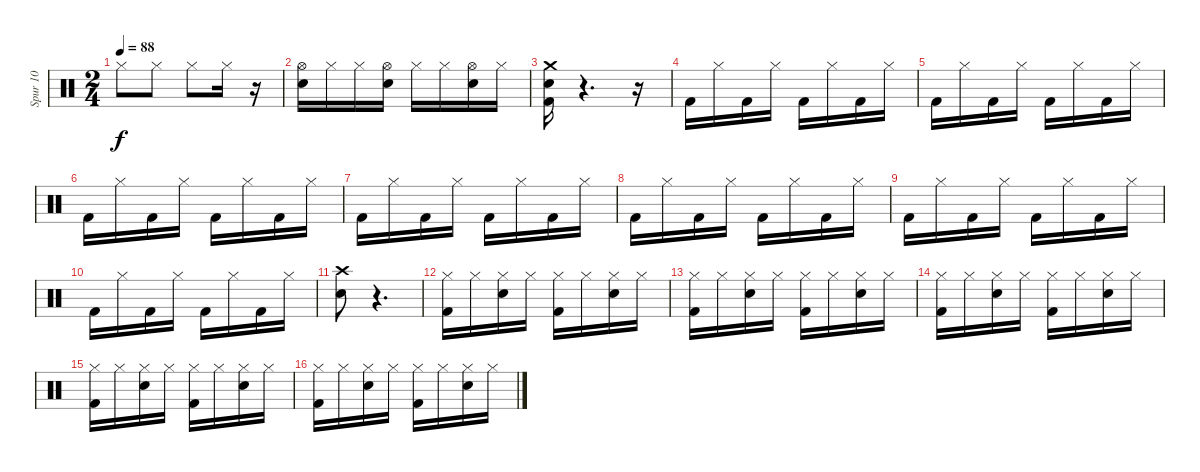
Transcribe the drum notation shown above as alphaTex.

\track ("Spur 10" "Spur 10") {instrument percussion}
\staff {score}
\articulation defaults
\ts (2 4)
\tempo 88
\clef neutral
\ks c "Hi-Hat (closed)".8{dy f} "Hi-Hat (closed)".8 "Hi-Hat (closed)".8 "Hi-Hat (closed)".16
r.16 |
("Snare (hit) 2" "Hi-Hat (open)").16 "Hi-Hat (closed)".16 "Hi-Hat (closed)".16 ("Snare (hit) 2" "Hi-Hat (open)").16 "Hi-Hat (closed)".16 "Hi-Hat (closed)".16 ("Snare (hit) 2" "Hi-Hat (open)").16 "Hi-Hat (closed)".16 |
("Kick (hit) 2" "Snare (hit) 2" "Crash medium (hit)").16 r.4{d} r.16 |
"Kick (hit) 2".16 "Hi-Hat (closed)".16 "Kick (hit) 2".16 "Hi-Hat (closed)".16 "Kick (hit) 2".16 "Hi-Hat (closed)".16 "Kick (hit) 2".16 "Hi-Hat (closed)".16 |
"Kick (hit) 2".16 "Hi-Hat (closed)".16 "Kick (hit) 2".16 "Hi-Hat (closed)".16 "Kick (hit) 2".16 "Hi-Hat (closed)".16 "Kick (hit) 2".16 "Hi-Hat (closed)".16 |
"Kick (hit) 2".16 "Hi-Hat (closed)".16 "Kick (hit) 2".16 "Hi-Hat (closed)".16 "Kick (hit) 2".16 "Hi-Hat (closed)".16 "Kick (hit) 2".16 "Hi-Hat (closed)".16 |
"Kick (hit) 2".16 "Hi-Hat (closed)".16 "Kick (hit) 2".16 "Hi-Hat (closed)".16 "Kick (hit) 2".16 "Hi-Hat (closed)".16 "Kick (hit) 2".16 "Hi-Hat (closed)".16 |
"Kick (hit) 2".16 "Hi-Hat (closed)".16 "Kick (hit) 2".16 "Hi-Hat (closed)".16 "Kick (hit) 2".16 "Hi-Hat (closed)".16 "Kick (hit) 2".16 "Hi-Hat (closed)".16 |
"Kick (hit) 2".16 "Hi-Hat (closed)".16 "Kick (hit) 2".16 "Hi-Hat (closed)".16 "Kick (hit) 2".16 "Hi-Hat (closed)".16 "Kick (hit) 2".16 "Hi-Hat (closed)".16 |
"Kick (hit) 2".16 "Hi-Hat (closed)".16 "Kick (hit) 2".16 "Hi-Hat (closed)".16 "Kick (hit) 2".16 "Hi-Hat (closed)".16 "Kick (hit) 2".16 "Hi-Hat (closed)".16 |
("Crash high (hit)" "Electric Snare (hit)").8 r.4{d} |
("Hi-Hat (closed)" "Kick (hit) 2").16 "Hi-Hat (closed)".16 ("Hi-Hat (closed)" "Electric Snare (hit)").16 "Hi-Hat (closed)".16 ("Hi-Hat (closed)" "Kick (hit) 2").16 "Hi-Hat (closed)".16 ("Hi-Hat (closed)" "Snare (hit) 2").16 "Hi-Hat (closed)".16 |
("Hi-Hat (closed)" "Kick (hit) 2").16 "Hi-Hat (closed)".16 ("Hi-Hat (closed)" "Electric Snare (hit)").16 "Hi-Hat (closed)".16 ("Hi-Hat (closed)" "Kick (hit) 2").16 "Hi-Hat (closed)".16 ("Hi-Hat (closed)" "Snare (hit) 2").16 "Hi-Hat (closed)".16 |
("Hi-Hat (closed)" "Kick (hit) 2").16 "Hi-Hat (closed)".16 ("Hi-Hat (closed)" "Electric Snare (hit)").16 "Hi-Hat (closed)".16 ("Hi-Hat (closed)" "Kick (hit) 2").16 "Hi-Hat (closed)".16 ("Hi-Hat (closed)" "Electric Snare (hit)").16 "Hi-Hat (closed)".16 |
("Hi-Hat (closed)" "Kick (hit) 2").16 "Hi-Hat (closed)".16 ("Hi-Hat (closed)" "Electric Snare (hit)").16 "Hi-Hat (closed)".16 ("Hi-Hat (closed)" "Kick (hit) 2").16 "Hi-Hat (closed)".16 ("Hi-Hat (closed)" "Electric Snare (hit)").16 "Hi-Hat (closed)".16 |
("Hi-Hat (closed)" "Kick (hit) 2").16 "Hi-Hat (closed)".16 ("Hi-Hat (closed)" "Electric Snare (hit)").16 "Hi-Hat (closed)".16 ("Hi-Hat (closed)" "Kick (hit) 2").16 "Hi-Hat (closed)".16 ("Hi-Hat (closed)" "Electric Snare (hit)").16 "Hi-Hat (closed)".16
